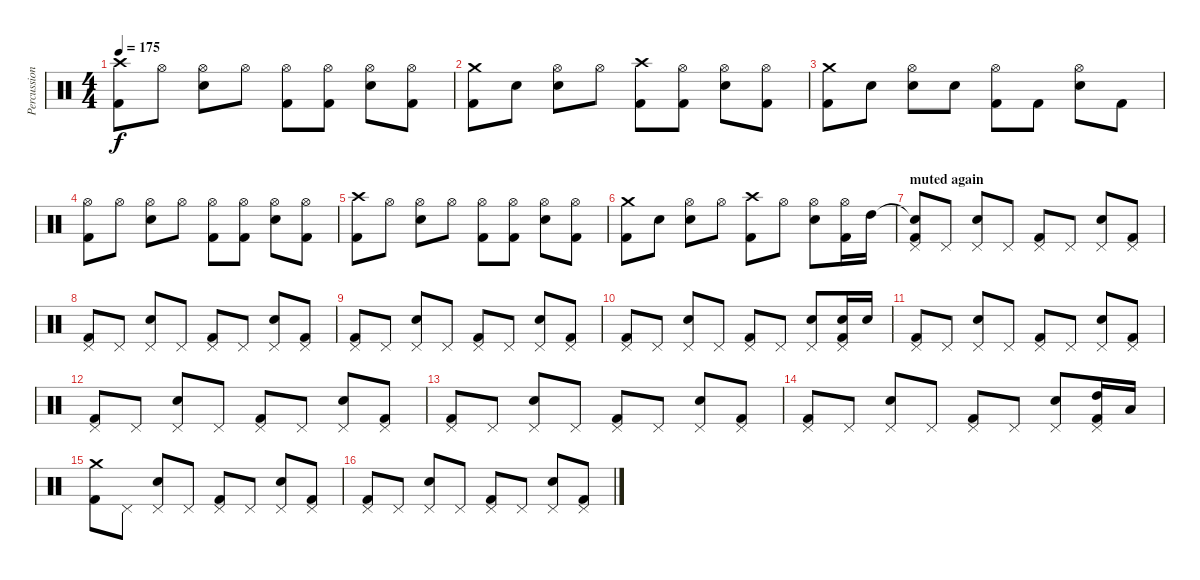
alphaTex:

\track ("Percussion" "Percussion") {instrument percussion}
\staff {score}
\articulation defaults
\ts (4 4)
\tempo 175
\clef neutral
\ks c
("Crash high (hit)" "Kick (hit) 2").8{dy f} "Hi-Hat (open)"{x}.8 ("Hi-Hat (open)" "Electric Snare (hit)").8 "Hi-Hat (open)"{x}.8 ("Hi-Hat (open)" "Kick (hit) 2").8 ("Hi-Hat (open)"{x} "Kick (hit) 2").8 ("Hi-Hat (open)" "Electric Snare (hit)").8 ("Hi-Hat (open)"{x} "Kick (hit) 2").8 |
("Crash medium (hit)" "Kick (hit) 2").8 "Snare (hit)"{x}.8 ("Hi-Hat (open)" "Electric Snare (hit)").8 "Hi-Hat (open)"{x}.8 ("Crash high (hit)" "Kick (hit) 2").8 ("Hi-Hat (open)"{x} "Kick (hit) 2").8 ("Hi-Hat (open)" "Electric Snare (hit)").8 ("Hi-Hat (open)"{x} "Kick (hit) 2").8 |
("Crash medium (hit)" "Kick (hit) 2").8 "Snare (hit)"{x}.8 ("Hi-Hat (open)" "Electric Snare (hit)").8 "Snare (hit)"{x}.8 ("Hi-Hat (open)" "Kick (hit) 2").8 "Kick (hit) 2".8 ("Hi-Hat (open)" "Electric Snare (hit)").8 "Kick (hit) 2".8 |
("Hi-Hat (open)" "Kick (hit) 2").8 "Hi-Hat (open)"{x}.8 ("Hi-Hat (open)" "Electric Snare (hit)").8 "Hi-Hat (open)"{x}.8 ("Hi-Hat (open)" "Kick (hit) 2").8 ("Hi-Hat (open)"{x} "Kick (hit) 2").8 ("Hi-Hat (open)" "Electric Snare (hit)").8 ("Hi-Hat (open)"{x} "Kick (hit) 2").8 |
("Crash high (hit)" "Kick (hit) 2").8 "Hi-Hat (open)"{x}.8 ("Hi-Hat (open)" "Electric Snare (hit)").8 "Hi-Hat (open)"{x}.8 ("Hi-Hat (open)" "Kick (hit) 2").8 ("Hi-Hat (open)"{x} "Kick (hit) 2").8 ("Hi-Hat (open)" "Electric Snare (hit)").8 ("Hi-Hat (open)"{x} "Kick (hit) 2").8 |
("Crash medium (hit)" "Kick (hit) 2").8 "Snare (hit)"{x}.8 ("Hi-Hat (open)" "Electric Snare (hit)").8 "Hi-Hat (open)"{x}.8 ("Crash high (hit)" "Kick (hit) 2").8 "Hi-Hat (open)"{x}.8 ("Hi-Hat (open)" "Electric Snare (hit)").8 ("Hi-Hat (open)"{x} "Kick (hit) 2").16 "High Tom (hit)".16 |
\section ("" "muted again")
("Snare (hit)"{t} "Pedal Hi-Hat (hit)" "Kick (hit) 2").8 "Pedal Hi-Hat (hit)".8 ("Pedal Hi-Hat (hit)" "Electric Snare (hit)").8 "Pedal Hi-Hat (hit)".8 ("Pedal Hi-Hat (hit)" "Kick (hit) 2").8 "Pedal Hi-Hat (hit)".8 ("Pedal Hi-Hat (hit)" "Electric Snare (hit)").8 ("Pedal Hi-Hat (hit)" "Kick (hit) 2").8 |
\section ("" "")
("Pedal Hi-Hat (hit)" "Kick (hit) 2").8 "Pedal Hi-Hat (hit)".8 ("Pedal Hi-Hat (hit)" "Electric Snare (hit)").8 "Pedal Hi-Hat (hit)".8 ("Pedal Hi-Hat (hit)" "Kick (hit) 2").8 "Pedal Hi-Hat (hit)".8 ("Pedal Hi-Hat (hit)" "Electric Snare (hit)").8 ("Pedal Hi-Hat (hit)" "Kick (hit) 2").8 |
("Pedal Hi-Hat (hit)" "Kick (hit) 2").8 "Pedal Hi-Hat (hit)".8 ("Pedal Hi-Hat (hit)" "Electric Snare (hit)").8 "Pedal Hi-Hat (hit)".8 ("Pedal Hi-Hat (hit)" "Kick (hit) 2").8 "Pedal Hi-Hat (hit)".8 ("Pedal Hi-Hat (hit)" "Electric Snare (hit)").8 ("Pedal Hi-Hat (hit)" "Kick (hit) 2").8 |
("Pedal Hi-Hat (hit)" "Kick (hit) 2").8 "Pedal Hi-Hat (hit)".8 ("Pedal Hi-Hat (hit)" "Electric Snare (hit)").8 "Pedal Hi-Hat (hit)".8 ("Pedal Hi-Hat (hit)" "Kick (hit) 2").8 "Pedal Hi-Hat (hit)".8 ("Pedal Hi-Hat (hit)" "Electric Snare (hit)").8 ("Pedal Hi-Hat (hit)" "Electric Snare (hit)" "Kick (hit) 2").16 "Electric Snare (hit)".16 |
("Pedal Hi-Hat (hit)" "Kick (hit) 2").8 "Pedal Hi-Hat (hit)".8 ("Pedal Hi-Hat (hit)" "Electric Snare (hit)").8 "Pedal Hi-Hat (hit)".8 ("Pedal Hi-Hat (hit)" "Kick (hit) 2").8 "Pedal Hi-Hat (hit)".8 ("Pedal Hi-Hat (hit)" "Electric Snare (hit)").8 ("Pedal Hi-Hat (hit)" "Kick (hit) 2").8 |
("Pedal Hi-Hat (hit)" "Kick (hit) 2").8 "Pedal Hi-Hat (hit)".8 ("Pedal Hi-Hat (hit)" "Electric Snare (hit)").8 "Pedal Hi-Hat (hit)".8 ("Pedal Hi-Hat (hit)" "Kick (hit) 2").8 "Pedal Hi-Hat (hit)".8 ("Pedal Hi-Hat (hit)" "Electric Snare (hit)").8 ("Pedal Hi-Hat (hit)" "Kick (hit) 2").8 |
("Pedal Hi-Hat (hit)" "Kick (hit) 2").8 "Pedal Hi-Hat (hit)".8 ("Pedal Hi-Hat (hit)" "Electric Snare (hit)").8 "Pedal Hi-Hat (hit)".8 ("Pedal Hi-Hat (hit)" "Kick (hit) 2").8 "Pedal Hi-Hat (hit)".8 ("Pedal Hi-Hat (hit)" "Electric Snare (hit)").8 ("Pedal Hi-Hat (hit)" "Kick (hit) 2").8 |
("Pedal Hi-Hat (hit)" "Kick (hit) 2").8 "Pedal Hi-Hat (hit)".8 ("Pedal Hi-Hat (hit)" "Electric Snare (hit)").8 "Pedal Hi-Hat (hit)".8 ("Pedal Hi-Hat (hit)" "Kick (hit) 2").8 "Pedal Hi-Hat (hit)".8 ("Pedal Hi-Hat (hit)" "Electric Snare (hit)").8 ("Pedal Hi-Hat (hit)" "High Tom (hit)" "Kick (hit) 2").16 "Low Floor Tom (hit)".16 |
("Crash medium (hit)" "Kick (hit) 2").8 "Pedal Hi-Hat (hit)".8 ("Pedal Hi-Hat (hit)" "Electric Snare (hit)").8 "Pedal Hi-Hat (hit)".8 ("Pedal Hi-Hat (hit)" "Kick (hit) 2").8 "Pedal Hi-Hat (hit)".8 ("Pedal Hi-Hat (hit)" "Electric Snare (hit)").8 ("Pedal Hi-Hat (hit)" "Kick (hit) 2").8 |
("Pedal Hi-Hat (hit)" "Kick (hit) 2").8 "Pedal Hi-Hat (hit)".8 ("Pedal Hi-Hat (hit)" "Electric Snare (hit)").8 "Pedal Hi-Hat (hit)".8 ("Pedal Hi-Hat (hit)" "Kick (hit) 2").8 "Pedal Hi-Hat (hit)".8 ("Pedal Hi-Hat (hit)" "Electric Snare (hit)").8 ("Pedal Hi-Hat (hit)" "Kick (hit) 2").8
